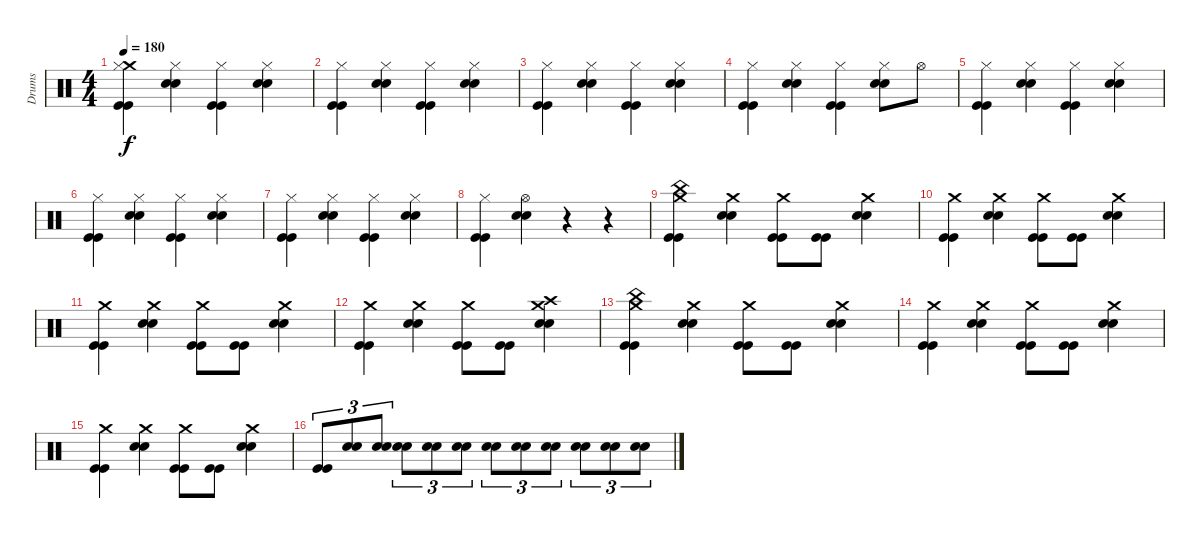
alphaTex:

\track ("Drums" "Drums") {instrument percussion}
\staff {score}
\articulation defaults
\ts (4 4)
\tempo 180
\clef neutral
\ks c
("Crash medium (hit)" "Hi-Hat (closed)" "Kick (hit)" "Kick (hit)").4{dy f} ("Hi-Hat (closed)" "Snare (hit) 2" "Snare (hit) 2").4 ("Hi-Hat (closed)" "Kick (hit)" "Kick (hit)").4 ("Hi-Hat (closed)" "Snare (hit) 2" "Snare (hit) 2").4 |
("Hi-Hat (closed)" "Kick (hit)" "Kick (hit)").4 ("Hi-Hat (closed)" "Snare (hit) 2" "Snare (hit) 2").4 ("Hi-Hat (closed)" "Kick (hit)" "Kick (hit)").4 ("Hi-Hat (closed)" "Snare (hit) 2" "Snare (hit) 2").4 |
("Hi-Hat (closed)" "Kick (hit)" "Kick (hit)").4 ("Hi-Hat (closed)" "Snare (hit) 2" "Snare (hit) 2").4 ("Hi-Hat (closed)" "Kick (hit)" "Kick (hit)").4 ("Hi-Hat (closed)" "Snare (hit) 2" "Snare (hit) 2").4 |
("Hi-Hat (closed)" "Kick (hit)" "Kick (hit)").4 ("Hi-Hat (closed)" "Snare (hit) 2" "Snare (hit) 2").4 ("Hi-Hat (closed)" "Kick (hit)" "Kick (hit)").4 ("Hi-Hat (closed)" "Snare (hit) 2" "Snare (hit) 2").8 "Hi-Hat (open)".8 |
("Hi-Hat (closed)" "Kick (hit)" "Kick (hit)").4 ("Hi-Hat (closed)" "Snare (hit) 2" "Snare (hit) 2").4 ("Hi-Hat (closed)" "Kick (hit)" "Kick (hit)").4 ("Hi-Hat (closed)" "Snare (hit) 2" "Snare (hit) 2").4 |
("Hi-Hat (closed)" "Kick (hit)" "Kick (hit)").4 ("Hi-Hat (closed)" "Snare (hit) 2" "Snare (hit) 2").4 ("Hi-Hat (closed)" "Kick (hit)" "Kick (hit)").4 ("Hi-Hat (closed)" "Snare (hit) 2" "Snare (hit) 2").4 |
("Hi-Hat (closed)" "Kick (hit)" "Kick (hit)").4 ("Hi-Hat (closed)" "Snare (hit) 2" "Snare (hit) 2").4 ("Hi-Hat (closed)" "Kick (hit)" "Kick (hit)").4 ("Hi-Hat (closed)" "Snare (hit) 2" "Snare (hit) 2").4 |
("Hi-Hat (closed)" "Kick (hit)" "Kick (hit)").4 ("Hi-Hat (open)" "Snare (hit) 2" "Snare (hit) 2").4 r.4 r.4 |
("China (hit)" "Crash medium (hit)" "Kick (hit)" "Kick (hit)").4 ("Crash medium (hit)" "Snare (hit) 2" "Snare (hit) 2").4 ("Crash medium (hit)" "Kick (hit)" "Kick (hit)").8 ("Kick (hit)" "Kick (hit)").8 ("Crash medium (hit)" "Snare (hit) 2" "Snare (hit) 2").4 |
("Crash medium (hit)" "Kick (hit)" "Kick (hit)").4 ("Crash medium (hit)" "Snare (hit) 2" "Snare (hit) 2").4 ("Crash medium (hit)" "Kick (hit)" "Kick (hit)").8 ("Kick (hit)" "Kick (hit)").8 ("Crash medium (hit)" "Snare (hit) 2" "Snare (hit) 2").4 |
("Crash medium (hit)" "Kick (hit)" "Kick (hit)").4 ("Crash medium (hit)" "Snare (hit) 2" "Snare (hit) 2").4 ("Crash medium (hit)" "Kick (hit)" "Kick (hit)").8 ("Kick (hit)" "Kick (hit)").8 ("Crash medium (hit)" "Snare (hit) 2" "Snare (hit) 2").4 |
("Crash medium (hit)" "Kick (hit)" "Kick (hit)").4 ("Crash medium (hit)" "Snare (hit) 2" "Snare (hit) 2").4 ("Crash medium (hit)" "Kick (hit)" "Kick (hit)").8 ("Kick (hit)" "Kick (hit)").8 ("Crash high (hit)" "Crash medium (hit)" "Snare (hit) 2" "Snare (hit) 2").4 |
("China (hit)" "Crash medium (hit)" "Kick (hit)" "Kick (hit)").4 ("Crash medium (hit)" "Snare (hit) 2" "Snare (hit) 2").4 ("Crash medium (hit)" "Kick (hit)" "Kick (hit)").8 ("Kick (hit)" "Kick (hit)").8 ("Crash medium (hit)" "Snare (hit) 2" "Snare (hit) 2").4 |
("Crash medium (hit)" "Kick (hit)" "Kick (hit)").4 ("Crash medium (hit)" "Snare (hit) 2" "Snare (hit) 2").4 ("Crash medium (hit)" "Kick (hit)" "Kick (hit)").8 ("Kick (hit)" "Kick (hit)").8 ("Crash medium (hit)" "Snare (hit) 2" "Snare (hit) 2").4 |
("Crash medium (hit)" "Kick (hit)" "Kick (hit)").4 ("Crash medium (hit)" "Snare (hit) 2" "Snare (hit) 2").4 ("Crash medium (hit)" "Kick (hit)" "Kick (hit)").8 ("Kick (hit)" "Kick (hit)").8 ("Crash medium (hit)" "Snare (hit) 2" "Snare (hit) 2").4 |
("Kick (hit)" "Kick (hit)").8{tu (3 2)} ("Snare (hit) 2" "Snare (hit) 2").8{tu (3 2)} ("Snare (hit) 2" "Snare (hit) 2").8{tu (3 2)} ("Snare (hit) 2" "Snare (hit) 2").8{tu (3 2)} ("Snare (hit) 2" "Snare (hit) 2").8{tu (3 2)} ("Snare (hit) 2" "Snare (hit) 2").8{tu (3 2)} ("Snare (hit) 2" "Snare (hit) 2").8{tu (3 2)} ("Snare (hit) 2" "Snare (hit) 2").8{tu (3 2)} ("Snare (hit) 2" "Snare (hit) 2").8{tu (3 2)} ("Snare (hit) 2" "Snare (hit) 2").8{tu (3 2)} ("Snare (hit) 2" "Snare (hit) 2").8{tu (3 2)} ("Snare (hit) 2" "Snare (hit) 2").8{tu (3 2)}
